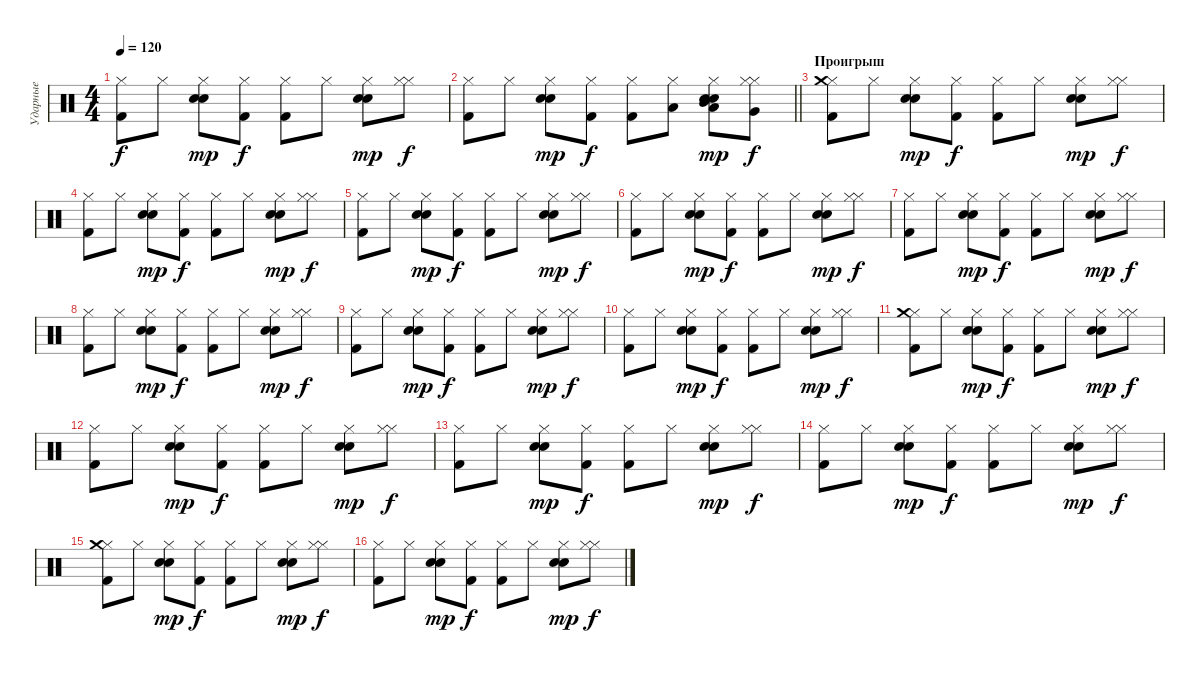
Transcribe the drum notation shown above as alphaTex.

\track ("Ударные" "Ударные") {instrument percussion}
\staff {score}
\articulation defaults
\ts (4 4)
\tempo 120
\clef neutral
\ks c
("Kick (hit) 2" "Hi-Hat (closed)").8{dy f} "Hi-Hat (closed)".8 ("Hand Clap (hit)" "Hi-Hat (closed)" "Electric Snare (hit)").8{dy mp} ("Kick (hit) 2" "Hi-Hat (closed)").8{dy f} ("Kick (hit) 2" "Hi-Hat (closed)").8 "Hi-Hat (closed)".8 ("Hand Clap (hit)" "Hi-Hat (closed)" "Electric Snare (hit)").8{dy mp} ("Hi-Hat (closed)" "Hi-Hat (closed)").8{dy f} |
\barLineRight lightlight
("Kick (hit) 2" "Hi-Hat (closed)").8 "Hi-Hat (closed)".8 ("Hand Clap (hit)" "Hi-Hat (closed)" "Electric Snare (hit)").8{dy mp} ("Kick (hit) 2" "Hi-Hat (closed)").8{dy f} ("Kick (hit) 2" "Hi-Hat (closed)").8 ("Hi-Hat (closed)" "Low Tom (hit)").8 ("Hand Clap (hit)" "Hi-Hat (closed)" "Electric Snare (hit)" "Low Floor Tom (hit)" "Mid Tom (hit)").8{dy mp} ("Hi-Hat (closed)" "Hi-Hat (closed)" "Very Low Tom (hit)").8{dy f} |
\section ("" "Проигрыш")
("Kick (hit) 2" "Hi-Hat (closed)" "Crash medium (hit)").8 "Hi-Hat (closed)".8 ("Hand Clap (hit)" "Hi-Hat (closed)" "Electric Snare (hit)").8{dy mp} ("Kick (hit) 2" "Hi-Hat (closed)").8{dy f} ("Kick (hit) 2" "Hi-Hat (closed)").8 "Hi-Hat (closed)".8 ("Hand Clap (hit)" "Hi-Hat (closed)" "Electric Snare (hit)").8{dy mp} ("Hi-Hat (closed)" "Hi-Hat (closed)").8{dy f} |
("Kick (hit) 2" "Hi-Hat (closed)").8 "Hi-Hat (closed)".8 ("Hand Clap (hit)" "Hi-Hat (closed)" "Electric Snare (hit)").8{dy mp} ("Kick (hit) 2" "Hi-Hat (closed)").8{dy f} ("Kick (hit) 2" "Hi-Hat (closed)").8 "Hi-Hat (closed)".8 ("Hand Clap (hit)" "Hi-Hat (closed)" "Electric Snare (hit)").8{dy mp} ("Hi-Hat (closed)" "Hi-Hat (closed)").8{dy f} |
("Kick (hit) 2" "Hi-Hat (closed)").8 "Hi-Hat (closed)".8 ("Hand Clap (hit)" "Hi-Hat (closed)" "Electric Snare (hit)").8{dy mp} ("Kick (hit) 2" "Hi-Hat (closed)").8{dy f} ("Kick (hit) 2" "Hi-Hat (closed)").8 "Hi-Hat (closed)".8 ("Hand Clap (hit)" "Hi-Hat (closed)" "Electric Snare (hit)").8{dy mp} ("Hi-Hat (closed)" "Hi-Hat (closed)").8{dy f} |
("Kick (hit) 2" "Hi-Hat (closed)").8 "Hi-Hat (closed)".8 ("Hand Clap (hit)" "Hi-Hat (closed)" "Electric Snare (hit)").8{dy mp} ("Kick (hit) 2" "Hi-Hat (closed)").8{dy f} ("Kick (hit) 2" "Hi-Hat (closed)").8 "Hi-Hat (closed)".8 ("Hand Clap (hit)" "Hi-Hat (closed)" "Electric Snare (hit)").8{dy mp} ("Hi-Hat (closed)" "Hi-Hat (closed)").8{dy f} |
("Kick (hit) 2" "Hi-Hat (closed)").8 "Hi-Hat (closed)".8 ("Hand Clap (hit)" "Hi-Hat (closed)" "Electric Snare (hit)").8{dy mp} ("Kick (hit) 2" "Hi-Hat (closed)").8{dy f} ("Kick (hit) 2" "Hi-Hat (closed)").8 "Hi-Hat (closed)".8 ("Hand Clap (hit)" "Hi-Hat (closed)" "Electric Snare (hit)").8{dy mp} ("Hi-Hat (closed)" "Hi-Hat (closed)").8{dy f} |
("Kick (hit) 2" "Hi-Hat (closed)").8 "Hi-Hat (closed)".8 ("Hand Clap (hit)" "Hi-Hat (closed)" "Electric Snare (hit)").8{dy mp} ("Kick (hit) 2" "Hi-Hat (closed)").8{dy f} ("Kick (hit) 2" "Hi-Hat (closed)").8 "Hi-Hat (closed)".8 ("Hand Clap (hit)" "Hi-Hat (closed)" "Electric Snare (hit)").8{dy mp} ("Hi-Hat (closed)" "Hi-Hat (closed)").8{dy f} |
("Kick (hit) 2" "Hi-Hat (closed)").8 "Hi-Hat (closed)".8 ("Hand Clap (hit)" "Hi-Hat (closed)" "Electric Snare (hit)").8{dy mp} ("Kick (hit) 2" "Hi-Hat (closed)").8{dy f} ("Kick (hit) 2" "Hi-Hat (closed)").8 "Hi-Hat (closed)".8 ("Hand Clap (hit)" "Hi-Hat (closed)" "Electric Snare (hit)").8{dy mp} ("Hi-Hat (closed)" "Hi-Hat (closed)").8{dy f} |
("Kick (hit) 2" "Hi-Hat (closed)").8 "Hi-Hat (closed)".8 ("Hand Clap (hit)" "Hi-Hat (closed)" "Electric Snare (hit)").8{dy mp} ("Kick (hit) 2" "Hi-Hat (closed)").8{dy f} ("Kick (hit) 2" "Hi-Hat (closed)").8 "Hi-Hat (closed)".8 ("Hand Clap (hit)" "Hi-Hat (closed)" "Electric Snare (hit)").8{dy mp} ("Hi-Hat (closed)" "Hi-Hat (closed)").8{dy f} |
("Kick (hit) 2" "Hi-Hat (closed)" "Crash medium (hit)").8 "Hi-Hat (closed)".8 ("Hand Clap (hit)" "Hi-Hat (closed)" "Electric Snare (hit)").8{dy mp} ("Kick (hit) 2" "Hi-Hat (closed)").8{dy f} ("Kick (hit) 2" "Hi-Hat (closed)").8 "Hi-Hat (closed)".8 ("Hand Clap (hit)" "Hi-Hat (closed)" "Electric Snare (hit)").8{dy mp} ("Hi-Hat (closed)" "Hi-Hat (closed)").8{dy f} |
("Kick (hit) 2" "Hi-Hat (closed)").8 "Hi-Hat (closed)".8 ("Hand Clap (hit)" "Hi-Hat (closed)" "Electric Snare (hit)").8{dy mp} ("Kick (hit) 2" "Hi-Hat (closed)").8{dy f} ("Kick (hit) 2" "Hi-Hat (closed)").8 "Hi-Hat (closed)".8 ("Hand Clap (hit)" "Hi-Hat (closed)" "Electric Snare (hit)").8{dy mp} ("Hi-Hat (closed)" "Hi-Hat (closed)").8{dy f} |
("Kick (hit) 2" "Hi-Hat (closed)").8 "Hi-Hat (closed)".8 ("Hand Clap (hit)" "Hi-Hat (closed)" "Electric Snare (hit)").8{dy mp} ("Kick (hit) 2" "Hi-Hat (closed)").8{dy f} ("Kick (hit) 2" "Hi-Hat (closed)").8 "Hi-Hat (closed)".8 ("Hand Clap (hit)" "Hi-Hat (closed)" "Electric Snare (hit)").8{dy mp} ("Hi-Hat (closed)" "Hi-Hat (closed)").8{dy f} |
("Kick (hit) 2" "Hi-Hat (closed)").8 "Hi-Hat (closed)".8 ("Hand Clap (hit)" "Hi-Hat (closed)" "Electric Snare (hit)").8{dy mp} ("Kick (hit) 2" "Hi-Hat (closed)").8{dy f} ("Kick (hit) 2" "Hi-Hat (closed)").8 "Hi-Hat (closed)".8 ("Hand Clap (hit)" "Hi-Hat (closed)" "Electric Snare (hit)").8{dy mp} ("Hi-Hat (closed)" "Hi-Hat (closed)").8{dy f} |
("Kick (hit) 2" "Hi-Hat (closed)" "Crash medium (hit)").8 "Hi-Hat (closed)".8 ("Hand Clap (hit)" "Hi-Hat (closed)" "Electric Snare (hit)").8{dy mp} ("Kick (hit) 2" "Hi-Hat (closed)").8{dy f} ("Kick (hit) 2" "Hi-Hat (closed)").8 "Hi-Hat (closed)".8 ("Hand Clap (hit)" "Hi-Hat (closed)" "Electric Snare (hit)").8{dy mp} ("Hi-Hat (closed)" "Hi-Hat (closed)").8{dy f} |
("Kick (hit) 2" "Hi-Hat (closed)").8 "Hi-Hat (closed)".8 ("Hand Clap (hit)" "Hi-Hat (closed)" "Electric Snare (hit)").8{dy mp} ("Kick (hit) 2" "Hi-Hat (closed)").8{dy f} ("Kick (hit) 2" "Hi-Hat (closed)").8 "Hi-Hat (closed)".8 ("Hand Clap (hit)" "Hi-Hat (closed)" "Electric Snare (hit)").8{dy mp} ("Hi-Hat (closed)" "Hi-Hat (closed)").8{dy f}
